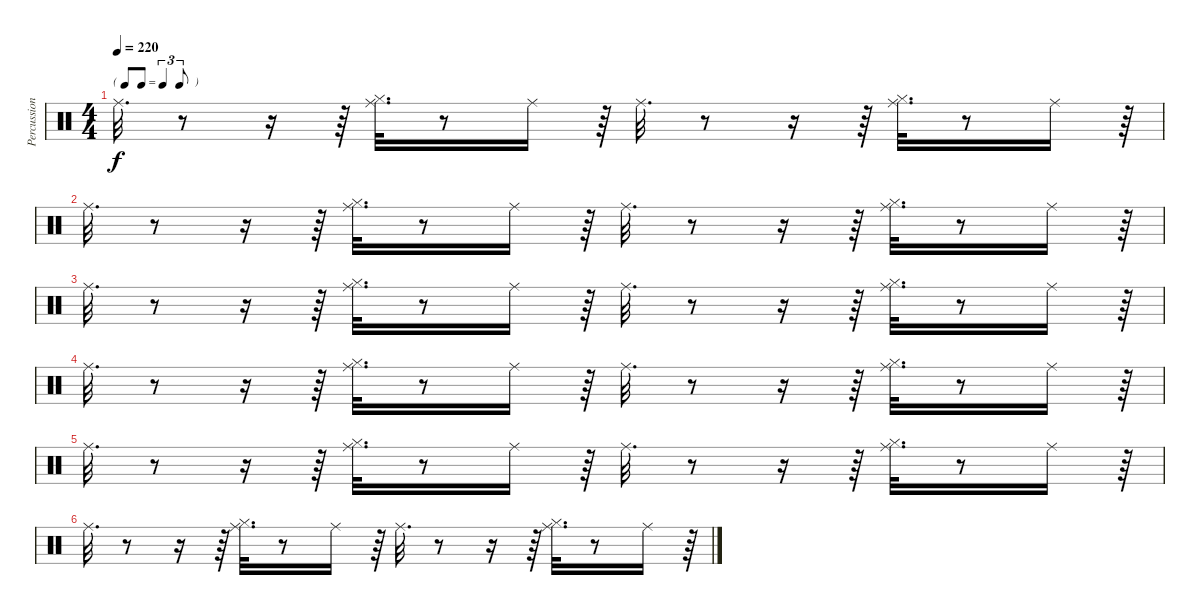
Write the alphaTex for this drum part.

\track ("Percussions" "Percussion") {instrument percussion}
\staff {score}
\articulation defaults
\ts (4 4)
\tf triplet8th
\tempo 220
\clef neutral
\ks c "Ride (middle)".32{d dy f}
r.8 r.16 r.64 ("Hi-Hat (closed)" "Ride (middle)").32{d} r.8 "Ride (middle)".16 r.64 "Ride (middle)".32{d} r.8 r.16 r.64 ("Hi-Hat (closed)" "Ride (middle)").32{d} r.8 "Ride (middle)".16 r.64 |
"Ride (middle)".32{d} r.8 r.16 r.64 ("Hi-Hat (closed)" "Ride (middle)").32{d} r.8 "Ride (middle)".16 r.64 "Ride (middle)".32{d} r.8 r.16 r.64 ("Hi-Hat (closed)" "Ride (middle)").32{d} r.8 "Ride (middle)".16 r.64 |
"Ride (middle)".32{d} r.8 r.16 r.64 ("Hi-Hat (closed)" "Ride (middle)").32{d} r.8 "Ride (middle)".16 r.64 "Ride (middle)".32{d} r.8 r.16 r.64 ("Hi-Hat (closed)" "Ride (middle)").32{d} r.8 "Ride (middle)".16 r.64 |
"Ride (middle)".32{d} r.8 r.16 r.64 ("Hi-Hat (closed)" "Ride (middle)").32{d} r.8 "Ride (middle)".16 r.64 "Ride (middle)".32{d} r.8 r.16 r.64 ("Hi-Hat (closed)" "Ride (middle)").32{d} r.8 "Ride (middle)".16 r.64 |
"Ride (middle)".32{d} r.8 r.16 r.64 ("Hi-Hat (closed)" "Ride (middle)").32{d} r.8 "Ride (middle)".16 r.64 "Ride (middle)".32{d} r.8 r.16 r.64 ("Hi-Hat (closed)" "Ride (middle)").32{d} r.8 "Ride (middle)".16 r.64 |
"Ride (middle)".32{d} r.8 r.16 r.64 ("Hi-Hat (closed)" "Ride (middle)").32{d} r.8 "Ride (middle)".16 r.64 "Ride (middle)".32{d} r.8 r.16 r.64 ("Hi-Hat (closed)" "Ride (middle)").32{d} r.8 "Ride (middle)".16 r.64
